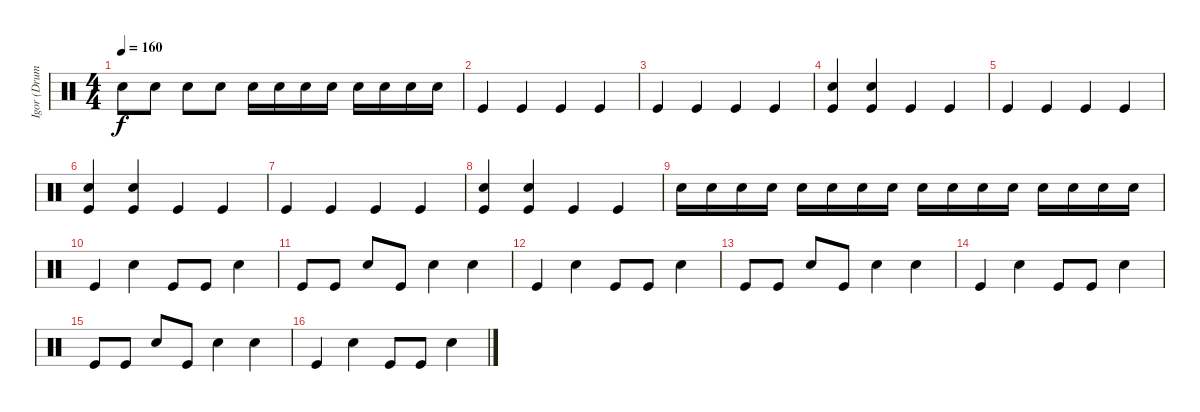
\track ("Igor (Drum- Bass & Snare)" "Igor (Drum") {instrument percussion}
\staff {score}
\articulation defaults
\ts (4 4)
\tempo 160
\clef neutral
\ks c "Snare (hit) 2".8{dy f} "Snare (hit) 2".8 "Snare (hit) 2".8 "Snare (hit) 2".8 "Snare (hit) 2".16 "Snare (hit) 2".16 "Snare (hit) 2".16 "Snare (hit) 2".16 "Snare (hit) 2".16 "Snare (hit) 2".16 "Snare (hit) 2".16 "Snare (hit) 2".16
|
"Kick (hit)".4 "Kick (hit)".4 "Kick (hit)".4 "Kick (hit)".4 |
"Kick (hit)".4 "Kick (hit)".4 "Kick (hit)".4 "Kick (hit)".4 |
("Snare (hit) 2" "Kick (hit)").4 ("Snare (hit) 2" "Kick (hit)").4 "Kick (hit)".4 "Kick (hit)".4 |
"Kick (hit)".4 "Kick (hit)".4 "Kick (hit)".4 "Kick (hit)".4 |
("Snare (hit) 2" "Kick (hit)").4 ("Snare (hit) 2" "Kick (hit)").4 "Kick (hit)".4 "Kick (hit)".4 |
"Kick (hit)".4 "Kick (hit)".4 "Kick (hit)".4 "Kick (hit)".4 |
("Snare (hit) 2" "Kick (hit)").4 ("Snare (hit) 2" "Kick (hit)").4 "Kick (hit)".4 "Kick (hit)".4 |
"Snare (hit) 2".16 "Snare (hit) 2".16 "Snare (hit) 2".16 "Snare (hit) 2".16 "Snare (hit) 2".16 "Snare (hit) 2".16 "Snare (hit) 2".16 "Snare (hit) 2".16 "Snare (hit) 2".16 "Snare (hit) 2".16 "Snare (hit) 2".16 "Snare (hit) 2".16 "Snare (hit) 2".16 "Snare (hit) 2".16 "Snare (hit) 2".16 "Snare (hit) 2".16 |
"Kick (hit)".4 "Snare (hit) 2".4 "Kick (hit)".8 "Kick (hit)".8 "Snare (hit) 2".4 |
"Kick (hit)".8 "Kick (hit)".8 "Snare (hit) 2".8 "Kick (hit)".8 "Snare (hit) 2".4 "Snare (hit) 2".4 |
"Kick (hit)".4 "Snare (hit) 2".4 "Kick (hit)".8 "Kick (hit)".8 "Snare (hit) 2".4 |
"Kick (hit)".8 "Kick (hit)".8 "Snare (hit) 2".8 "Kick (hit)".8 "Snare (hit) 2".4 "Snare (hit) 2".4 |
"Kick (hit)".4 "Snare (hit) 2".4 "Kick (hit)".8 "Kick (hit)".8 "Snare (hit) 2".4 |
"Kick (hit)".8 "Kick (hit)".8 "Snare (hit) 2".8 "Kick (hit)".8 "Snare (hit) 2".4 "Snare (hit) 2".4 |
"Kick (hit)".4 "Snare (hit) 2".4 "Kick (hit)".8 "Kick (hit)".8 "Snare (hit) 2".4
